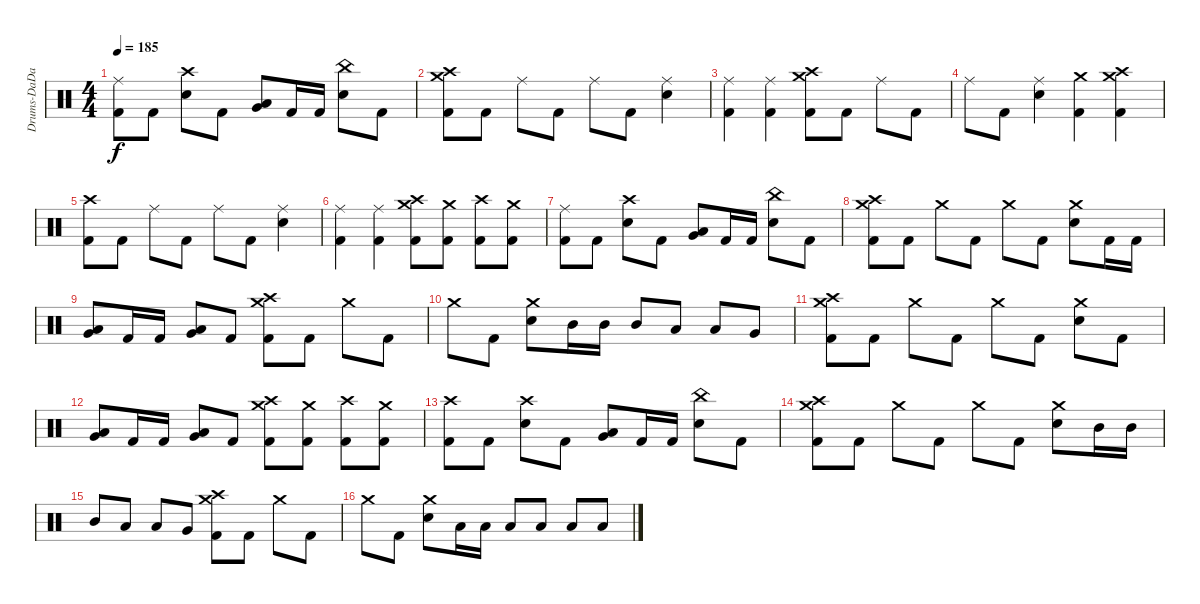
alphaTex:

\track ("Drums-DaDa" "Drums-DaDa") {instrument percussion}
\staff {score}
\articulation defaults
\ts (4 4)
\tempo 185
\clef neutral
\ks c
("Ride (middle)" "Kick (hit) 2").8{dy f} "Kick (hit) 2".8 ("Crash high (hit)" "Electric Snare (hit)").8 "Kick (hit) 2".8 ("Low Tom (hit)" "Very Low Tom (hit)").8 "Kick (hit) 2".16 "Kick (hit) 2".16 ("China (hit)" "Electric Snare (hit)").8 "Kick (hit) 2".8 |
("Crash medium (hit)" "Crash high (hit)" "Kick (hit) 2").8 "Kick (hit) 2".8 "Ride (middle)".8 "Kick (hit) 2".8 "Ride (middle)".8 "Kick (hit) 2".8 ("Ride (middle)" "Electric Snare (hit)").4 |
("Ride (middle)" "Kick (hit) 2").4 ("Ride (middle)" "Kick (hit) 2").4 ("Crash medium (hit)" "Crash high (hit)" "Kick (hit) 2").8 "Kick (hit) 2".8 "Ride (middle)".8 "Kick (hit) 2".8 |
"Ride (middle)".8 "Kick (hit) 2".8 ("Ride (middle)" "Electric Snare (hit)").4 ("Crash medium (hit)" "Kick (hit) 2").4 ("Crash medium (hit)" "Crash high (hit)" "Kick (hit) 2").4 |
("Crash high (hit)" "Kick (hit) 2").8 "Kick (hit) 2".8 "Ride (middle)".8 "Kick (hit) 2".8 "Ride (middle)".8 "Kick (hit) 2".8 ("Ride (middle)" "Electric Snare (hit)").4 |
("Ride (middle)" "Kick (hit) 2").4 ("Ride (middle)" "Kick (hit) 2").4 ("Crash medium (hit)" "Crash high (hit)" "Kick (hit) 2").8 ("Crash medium (hit)" "Kick (hit) 2").8 ("Crash high (hit)" "Kick (hit) 2").8 ("Crash medium (hit)" "Kick (hit) 2").8 |
("Ride (middle)" "Kick (hit) 2").8 "Kick (hit) 2".8 ("Crash high (hit)" "Electric Snare (hit)").8 "Kick (hit) 2".8 ("Low Tom (hit)" "Very Low Tom (hit)").8 "Kick (hit) 2".16 "Kick (hit) 2".16 ("China (hit)" "Electric Snare (hit)").8 "Kick (hit) 2".8 |
("Crash medium (hit)" "Crash high (hit)" "Kick (hit) 2").8 "Kick (hit) 2".8 "Crash medium (hit)".8 "Kick (hit) 2".8 "Crash medium (hit)".8 "Kick (hit) 2".8 ("Crash medium (hit)" "Electric Snare (hit)").8 "Kick (hit) 2".16 "Kick (hit) 2".16 |
("Low Tom (hit)" "Very Low Tom (hit)").8 "Kick (hit) 2".16 "Kick (hit) 2".16 ("Very Low Tom (hit)" "Low Floor Tom (hit)").8 "Kick (hit) 2".8 ("Crash medium (hit)" "Crash high (hit)" "Kick (hit) 2").8 "Kick (hit) 2".8 "Crash medium (hit)".8 "Kick (hit) 2".8 |
"Crash medium (hit)".8 "Kick (hit) 2".8 ("Crash medium (hit)" "Electric Snare (hit)").8 "Mid Tom (hit)".16 "Mid Tom (hit)".16 "Mid Tom (hit)".8 "Low Tom (hit)".8 "Low Tom (hit)".8 "Very Low Tom (hit)".8 |
("Crash medium (hit)" "Crash high (hit)" "Kick (hit) 2").8 "Kick (hit) 2".8 "Crash medium (hit)".8 "Kick (hit) 2".8 "Crash medium (hit)".8 "Kick (hit) 2".8 ("Crash medium (hit)" "Electric Snare (hit)").8 "Kick (hit) 2".8 |
("Low Tom (hit)" "Very Low Tom (hit)").8 "Kick (hit) 2".16 "Kick (hit) 2".16 ("Very Low Tom (hit)" "Low Floor Tom (hit)").8 "Kick (hit) 2".8 ("Crash medium (hit)" "Crash high (hit)" "Kick (hit) 2").8 ("Crash medium (hit)" "Kick (hit) 2").8 ("Crash high (hit)" "Kick (hit) 2").8 ("Crash medium (hit)" "Kick (hit) 2").8 |
("Crash high (hit)" "Kick (hit) 2").8 "Kick (hit) 2".8 ("Crash high (hit)" "Electric Snare (hit)").8 "Kick (hit) 2".8 ("Low Tom (hit)" "Very Low Tom (hit)").8 "Kick (hit) 2".16 "Kick (hit) 2".16 ("China (hit)" "Electric Snare (hit)").8 "Kick (hit) 2".8 |
("Crash medium (hit)" "Crash high (hit)" "Kick (hit) 2").8 "Kick (hit) 2".8 "Crash medium (hit)".8 "Kick (hit) 2".8 "Crash medium (hit)".8 "Kick (hit) 2".8 ("Crash medium (hit)" "Electric Snare (hit)").8 "Mid Tom (hit)".16 "Mid Tom (hit)".16 |
"Mid Tom (hit)".8 "Low Tom (hit)".8 "Low Tom (hit)".8 "Very Low Tom (hit)".8 ("Crash medium (hit)" "Crash high (hit)" "Kick (hit) 2").8 "Kick (hit) 2".8 "Crash medium (hit)".8 "Kick (hit) 2".8 |
"Crash medium (hit)".8 "Kick (hit) 2".8 ("Crash medium (hit)" "Electric Snare (hit)").8 "Low Tom (hit)".16 "Low Tom (hit)".16 "Low Tom (hit)".8 "Low Tom (hit)".8 "Low Tom (hit)".8 "Low Tom (hit)".8
